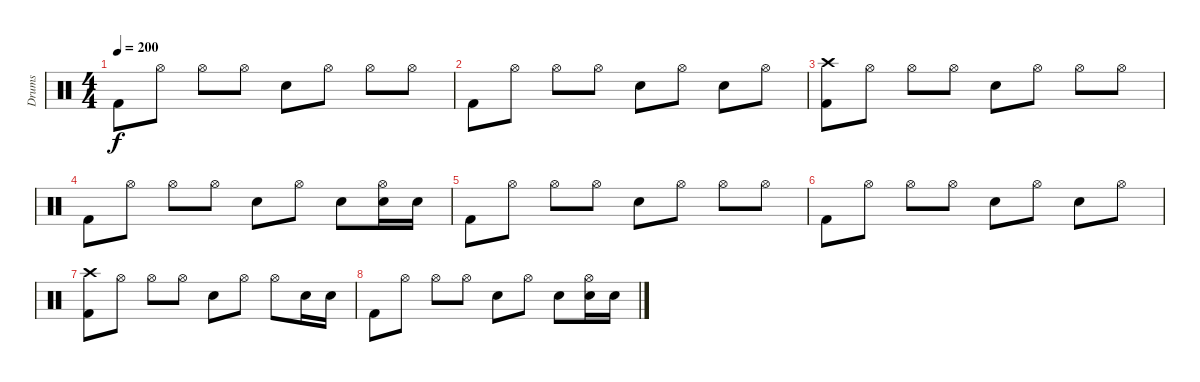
\track ("Drums" "Drums") {instrument percussion}
\staff {score}
\articulation defaults
\ts (4 4)
\tempo 200
\clef neutral
\ks c "Kick (hit) 2".8{dy f} "Hi-Hat (open)".8 "Hi-Hat (open)".8 "Hi-Hat (open)".8 "Snare (hit) 2".8 "Hi-Hat (open)".8 "Hi-Hat (open)".8 "Hi-Hat (open)".8
|
"Kick (hit) 2".8 "Hi-Hat (open)".8 "Hi-Hat (open)".8 "Hi-Hat (open)".8 "Snare (hit) 2".8 "Hi-Hat (open)".8 "Snare (hit) 2".8 "Hi-Hat (open)".8 |
("Crash high (hit)" "Kick (hit) 2").8 "Hi-Hat (open)".8 "Hi-Hat (open)".8 "Hi-Hat (open)".8 "Snare (hit) 2".8 "Hi-Hat (open)".8 "Hi-Hat (open)".8 "Hi-Hat (open)".8 |
"Kick (hit) 2".8 "Hi-Hat (open)".8 "Hi-Hat (open)".8 "Hi-Hat (open)".8 "Snare (hit) 2".8 "Hi-Hat (open)".8 "Snare (hit) 2".8 ("Hi-Hat (open)" "Snare (hit) 2").16 "Snare (hit) 2".16 |
"Kick (hit) 2".8{volume 0} "Hi-Hat (open)".8 "Hi-Hat (open)".8 "Hi-Hat (open)".8 "Snare (hit) 2".8 "Hi-Hat (open)".8 "Hi-Hat (open)".8 "Hi-Hat (open)".8 |
"Kick (hit) 2".8 "Hi-Hat (open)".8 "Hi-Hat (open)".8 "Hi-Hat (open)".8 "Snare (hit) 2".8 "Hi-Hat (open)".8 "Snare (hit) 2".8 "Hi-Hat (open)".8 |
("Crash high (hit)" "Kick (hit) 2").8 "Hi-Hat (open)".8 "Hi-Hat (open)".8 "Hi-Hat (open)".8 "Snare (hit) 2".8 "Hi-Hat (open)".8 "Hi-Hat (open)".8 "Snare (hit) 2".16 "Snare (hit) 2".16 |
"Kick (hit) 2".8 "Hi-Hat (open)".8 "Hi-Hat (open)".8 "Hi-Hat (open)".8 "Snare (hit) 2".8 "Hi-Hat (open)".8 "Snare (hit) 2".8 ("Hi-Hat (open)" "Snare (hit) 2").16 "Snare (hit) 2".16
